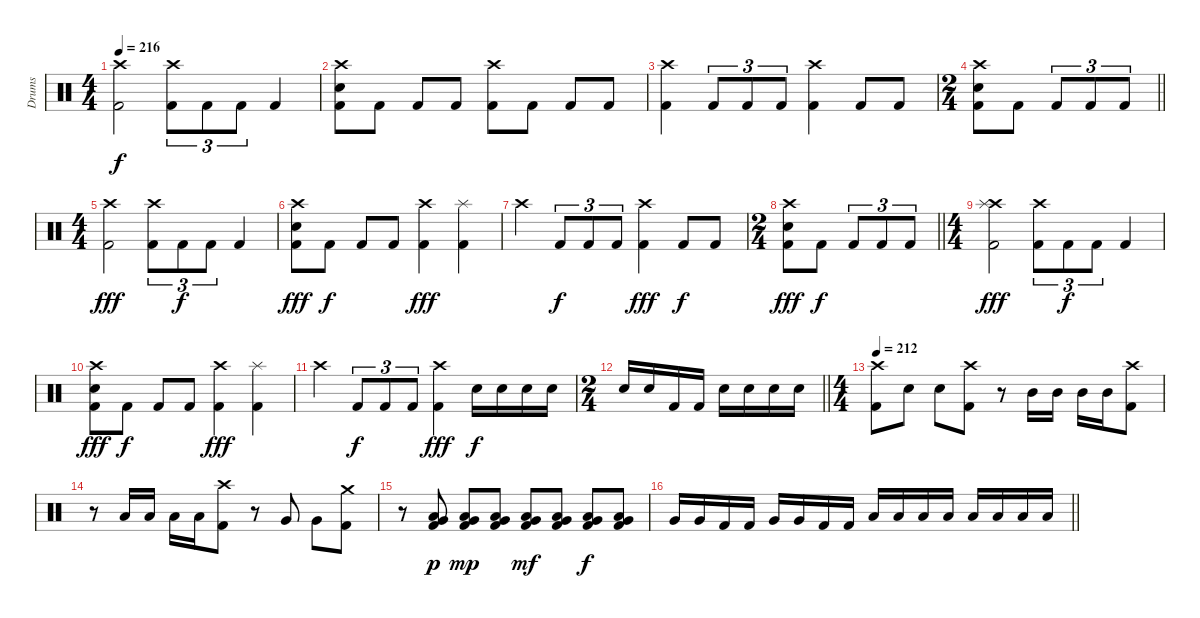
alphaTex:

\track ("Drums" "Drums") {instrument percussion}
\staff {score}
\articulation defaults
\ts (4 4)
\tempo 216
\clef neutral
\ks c
("Crash high (hit)" "Kick (hit) 2").2{dy f} ("Crash high (hit)" "Kick (hit) 2").8{tu (3 2)} "Kick (hit) 2".8{tu (3 2)} "Kick (hit) 2".8{tu (3 2)} "Kick (hit) 2".4 |
("Crash high (hit)" "Electric Snare (hit)" "Kick (hit) 2").8 "Kick (hit) 2".8 "Kick (hit) 2".8 "Kick (hit) 2".8 ("Crash high (hit)" "Kick (hit) 2").8 "Kick (hit) 2".8 "Kick (hit) 2".8 "Kick (hit) 2".8 |
("Crash high (hit)" "Kick (hit) 2").4 "Kick (hit) 2".8{tu (3 2)} "Kick (hit) 2".8{tu (3 2)} "Kick (hit) 2".8{tu (3 2)} ("Crash high (hit)" "Kick (hit) 2").4 "Kick (hit) 2".8 "Kick (hit) 2".8 |
\ts (2 4)
\barLineRight lightlight
("Crash high (hit)" "Electric Snare (hit)" "Kick (hit) 2").8 "Kick (hit) 2".8 "Kick (hit) 2".8{tu (3 2)} "Kick (hit) 2".8{tu (3 2)} "Kick (hit) 2".8{tu (3 2)} |
\ts (4 4)
("Crash high (hit)" "Kick (hit) 2").2{dy fff} ("Crash high (hit)" "Kick (hit) 2").8{tu (3 2)} "Kick (hit) 2".8{tu (3 2) dy f} "Kick (hit) 2".8{tu (3 2)} "Kick (hit) 2".4 |
("Crash high (hit)" "Electric Snare (hit)" "Kick (hit) 2").8{dy fff} "Kick (hit) 2".8{dy f} "Kick (hit) 2".8 "Kick (hit) 2".8 ("Crash high (hit)" "Kick (hit) 2").4{dy fff} ("Splash (hit)" "Kick (hit) 2").4 |
"Crash high (hit)".4 "Kick (hit) 2".8{tu (3 2) dy f} "Kick (hit) 2".8{tu (3 2)} "Kick (hit) 2".8{tu (3 2)} ("Crash high (hit)" "Kick (hit) 2").4{dy fff} "Kick (hit) 2".8{dy f} "Kick (hit) 2".8 |
\ts (2 4)
\barLineRight lightlight
("Crash high (hit)" "Electric Snare (hit)" "Kick (hit) 2").8{dy fff} "Kick (hit) 2".8{dy f} "Kick (hit) 2".8{tu (3 2)} "Kick (hit) 2".8{tu (3 2)} "Kick (hit) 2".8{tu (3 2)} |
\ts (4 4)
("Crash high (hit)" "Splash (hit)" "Kick (hit) 2").2{dy fff} ("Crash high (hit)" "Kick (hit) 2").8{tu (3 2)} "Kick (hit) 2".8{tu (3 2) dy f} "Kick (hit) 2".8{tu (3 2)} "Kick (hit) 2".4 |
("Crash high (hit)" "Electric Snare (hit)" "Kick (hit) 2").8{dy fff} "Kick (hit) 2".8{dy f} "Kick (hit) 2".8 "Kick (hit) 2".8 ("Crash high (hit)" "Kick (hit) 2").4{dy fff} ("Splash (hit)" "Kick (hit) 2").4 |
"Crash high (hit)".4 "Kick (hit) 2".8{tu (3 2) dy f} "Kick (hit) 2".8{tu (3 2)} "Kick (hit) 2".8{tu (3 2)} ("Crash high (hit)" "Kick (hit) 2").4{dy fff} "Electric Snare (hit)".16{dy f} "Electric Snare (hit)".16 "Electric Snare (hit)".16 "Electric Snare (hit)".16 |
\ts (2 4)
\barLineRight lightlight "Electric Snare (hit)".16 "Electric Snare (hit)".16 "Kick (hit) 2".16 "Kick (hit) 2".16 "Electric Snare (hit)".16 "Electric Snare (hit)".16 "Electric Snare (hit)".16 "Electric Snare (hit)".16
|
\ts (4 4)
\tempo 212
("Crash high (hit)" "Kick (hit) 2").8 "Electric Snare (hit)".8 "Electric Snare (hit)".8 ("Crash high (hit)" "Kick (hit) 2").8 r.8 "Mid Tom (hit)".16 "Mid Tom (hit)".16 "Mid Tom (hit)".16 "Mid Tom (hit)".16 ("Crash high (hit)" "Kick (hit) 2").8 |
r.8 "Low Tom (hit)".16 "Low Tom (hit)".16 "Low Tom (hit)".16 "Low Tom (hit)".16 ("Crash high (hit)" "Kick (hit) 2").8 r.8 "Very Low Tom (hit)".8 "Very Low Tom (hit)".8 ("Crash medium (hit)" "Kick (hit) 2").8 |
r.8 ("Very Low Tom (hit)" "Low Floor Tom (hit)" "Kick (hit) 2").8{dy p} ("Very Low Tom (hit)" "Low Floor Tom (hit)" "Kick (hit) 2").8{dy mp} ("Very Low Tom (hit)" "Low Floor Tom (hit)" "Kick (hit) 2").8 ("Very Low Tom (hit)" "Low Floor Tom (hit)" "Kick (hit) 2").8{dy mf} ("Very Low Tom (hit)" "Low Floor Tom (hit)" "Kick (hit) 2").8 ("Very Low Tom (hit)" "Low Floor Tom (hit)" "Kick (hit) 2").8{dy f} ("Very Low Tom (hit)" "Low Floor Tom (hit)" "Kick (hit) 2").8 |
\barLineRight lightlight "Very Low Tom (hit)".16 "Very Low Tom (hit)".16 "Kick (hit) 2".16 "Kick (hit) 2".16 "Very Low Tom (hit)".16 "Very Low Tom (hit)".16 "Kick (hit) 2".16 "Kick (hit) 2".16 "Low Tom (hit)".16 "Low Tom (hit)".16 "Low Tom (hit)".16 "Low Tom (hit)".16 "Low Tom (hit)".16 "Low Tom (hit)".16 "Low Tom (hit)".16 "Low Tom (hit)".16
